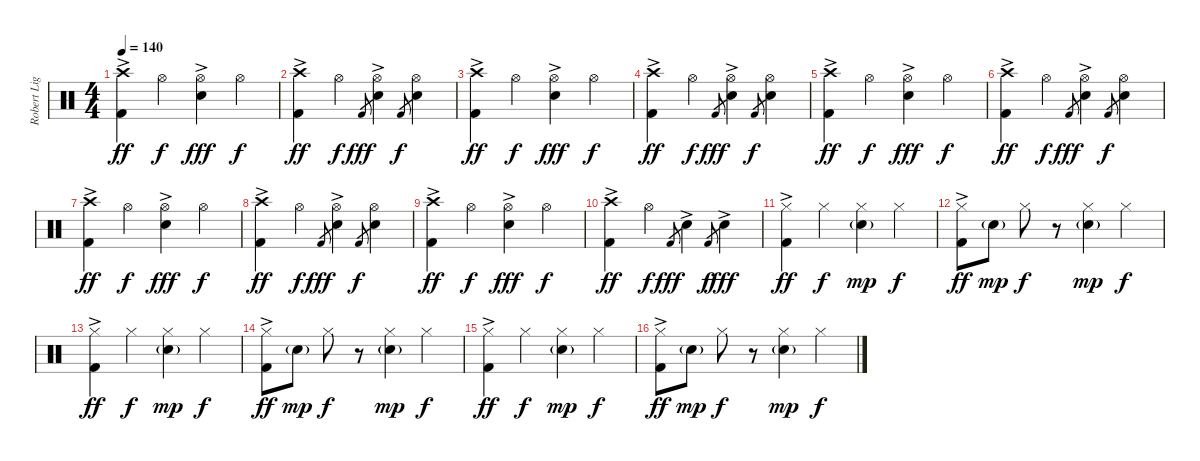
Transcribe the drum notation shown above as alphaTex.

\track ("Robert Ligiewicz (Perkusja)" "Robert Lig") {instrument percussion}
\staff {score}
\articulation defaults
\ts (4 4)
\tempo 140
\clef neutral
\ks c
("Crash high (hit)" "Kick (hit) 2"{ac}).4{dy ff} "Hi-Hat (open)".4{dy f} ("Hi-Hat (open)" "Electric Snare (hit)"{ac}).4{dy fff} "Hi-Hat (open)".4{dy f} |
("Crash high (hit)" "Kick (hit) 2"{ac}).4{dy ff} "Hi-Hat (open)".4{dy f} "Kick (hit) 2".8{gr dy fff} ("Hi-Hat (open)" "Electric Snare (hit)"{ac}).4 "Kick (hit) 2".8{gr dy f} ("Hi-Hat (open)" "Electric Snare (hit)").4 |
("Crash high (hit)" "Kick (hit) 2"{ac}).4{dy ff} "Hi-Hat (open)".4{dy f} ("Hi-Hat (open)" "Electric Snare (hit)"{ac}).4{dy fff} "Hi-Hat (open)".4{dy f} |
("Crash high (hit)" "Kick (hit) 2"{ac}).4{dy ff} "Hi-Hat (open)".4{dy f} "Kick (hit) 2".8{gr dy fff} ("Hi-Hat (open)" "Electric Snare (hit)"{ac}).4 "Kick (hit) 2".8{gr dy f} ("Hi-Hat (open)" "Electric Snare (hit)").4 |
("Crash high (hit)" "Kick (hit) 2"{ac}).4{dy ff} "Hi-Hat (open)".4{dy f} ("Hi-Hat (open)" "Electric Snare (hit)"{ac}).4{dy fff} "Hi-Hat (open)".4{dy f} |
("Crash high (hit)" "Kick (hit) 2"{ac}).4{dy ff} "Hi-Hat (open)".4{dy f} "Kick (hit) 2".8{gr dy fff} ("Hi-Hat (open)" "Electric Snare (hit)"{ac}).4 "Kick (hit) 2".8{gr dy f} ("Hi-Hat (open)" "Electric Snare (hit)").4 |
("Crash high (hit)" "Kick (hit) 2"{ac}).4{dy ff} "Hi-Hat (open)".4{dy f} ("Hi-Hat (open)" "Electric Snare (hit)"{ac}).4{dy fff} "Hi-Hat (open)".4{dy f} |
("Crash high (hit)" "Kick (hit) 2"{ac}).4{dy ff} "Hi-Hat (open)".4{dy f} "Kick (hit) 2".8{gr dy fff} ("Hi-Hat (open)" "Electric Snare (hit)"{ac}).4 "Kick (hit) 2".8{gr dy f} ("Hi-Hat (open)" "Electric Snare (hit)").4 |
("Crash high (hit)" "Kick (hit) 2"{ac}).4{dy ff} "Hi-Hat (open)".4{dy f} ("Hi-Hat (open)" "Electric Snare (hit)"{ac}).4{dy fff} "Hi-Hat (open)".4{dy f} |
("Crash high (hit)" "Kick (hit) 2"{ac}).4{dy ff} "Hi-Hat (open)".4{dy f} "Kick (hit) 2".8{gr dy fff} "Electric Snare (hit)"{ac}.4 "Kick (hit) 2".8{gr dy f} "Electric Snare (hit)"{ac}.4{dy fff} |
("Hi-Hat (closed)" "Kick (hit) 2"{ac}).4{dy ff} "Hi-Hat (closed)".4{dy f} ("Hi-Hat (closed)" "Electric Snare (hit)"{g}).4{dy mp} "Hi-Hat (closed)".4{dy f} |
("Hi-Hat (closed)" "Kick (hit) 2"{ac}).8{dy ff} "Electric Snare (hit)"{g}.8{dy mp} "Hi-Hat (closed)".8{dy f} r.8 ("Hi-Hat (closed)" "Electric Snare (hit)"{g}).4{dy mp} "Hi-Hat (closed)".4{dy f} |
("Hi-Hat (closed)" "Kick (hit) 2"{ac}).4{dy ff} "Hi-Hat (closed)".4{dy f} ("Hi-Hat (closed)" "Electric Snare (hit)"{g}).4{dy mp} "Hi-Hat (closed)".4{dy f} |
("Hi-Hat (closed)" "Kick (hit) 2"{ac}).8{dy ff} "Electric Snare (hit)"{g}.8{dy mp} "Hi-Hat (closed)".8{dy f} r.8 ("Hi-Hat (closed)" "Electric Snare (hit)"{g}).4{dy mp} "Hi-Hat (closed)".4{dy f} |
("Hi-Hat (closed)" "Kick (hit) 2"{ac}).4{dy ff} "Hi-Hat (closed)".4{dy f} ("Hi-Hat (closed)" "Electric Snare (hit)"{g}).4{dy mp} "Hi-Hat (closed)".4{dy f} |
("Hi-Hat (closed)" "Kick (hit) 2"{ac}).8{dy ff} "Electric Snare (hit)"{g}.8{dy mp} "Hi-Hat (closed)".8{dy f} r.8 ("Hi-Hat (closed)" "Electric Snare (hit)"{g}).4{dy mp} "Hi-Hat (closed)".4{dy f}
